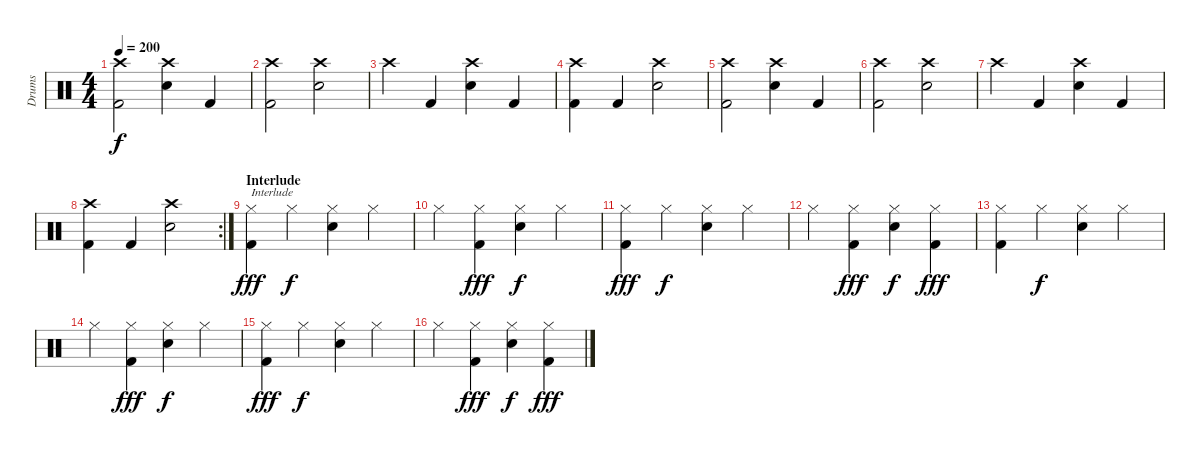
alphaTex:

\track ("Drums" "Drums") {instrument percussion}
\staff {score}
\articulation defaults
\ts (4 4)
\tempo 200
\clef neutral
\ks c
("Crash high (hit)" "Kick (hit) 2").2{dy f} ("Crash high (hit)" "Electric Snare (hit)").4 "Kick (hit) 2".4 |
("Crash high (hit)" "Kick (hit) 2").2 ("Crash high (hit)" "Electric Snare (hit)").2 |
"Crash high (hit)".4 "Kick (hit) 2".4 ("Crash high (hit)" "Electric Snare (hit)").4 "Kick (hit) 2".4 |
("Crash high (hit)" "Kick (hit) 2").4 "Kick (hit) 2".4 ("Crash high (hit)" "Electric Snare (hit)").2 |
("Crash high (hit)" "Kick (hit) 2").2 ("Crash high (hit)" "Electric Snare (hit)").4 "Kick (hit) 2".4 |
("Crash high (hit)" "Kick (hit) 2").2 ("Crash high (hit)" "Electric Snare (hit)").2 |
"Crash high (hit)".4 "Kick (hit) 2".4 ("Crash high (hit)" "Electric Snare (hit)").4 "Kick (hit) 2".4 |
\rc 2
("Crash high (hit)" "Kick (hit) 2").4 "Kick (hit) 2".4 ("Crash high (hit)" "Electric Snare (hit)").2 |
\section ("" "Interlude")
("Hi-Hat (closed)" "Kick (hit) 2").4{txt "Interlude" dy fff} "Hi-Hat (closed)".4{dy f} ("Hi-Hat (closed)" "Electric Snare (hit)").4 "Hi-Hat (closed)".4 |
"Hi-Hat (closed)".4 ("Hi-Hat (closed)" "Kick (hit) 2").4{dy fff} ("Hi-Hat (closed)" "Electric Snare (hit)").4{dy f} "Hi-Hat (closed)".4 |
("Hi-Hat (closed)" "Kick (hit) 2").4{dy fff} "Hi-Hat (closed)".4{dy f} ("Hi-Hat (closed)" "Electric Snare (hit)").4 "Hi-Hat (closed)".4 |
"Hi-Hat (closed)".4 ("Hi-Hat (closed)" "Kick (hit) 2").4{dy fff} ("Hi-Hat (closed)" "Electric Snare (hit)").4{dy f} ("Hi-Hat (closed)" "Kick (hit) 2").4{dy fff} |
("Hi-Hat (closed)" "Kick (hit) 2").4 "Hi-Hat (closed)".4{dy f} ("Hi-Hat (closed)" "Electric Snare (hit)").4 "Hi-Hat (closed)".4 |
"Hi-Hat (closed)".4 ("Hi-Hat (closed)" "Kick (hit) 2").4{dy fff} ("Hi-Hat (closed)" "Electric Snare (hit)").4{dy f} "Hi-Hat (closed)".4 |
("Hi-Hat (closed)" "Kick (hit) 2").4{dy fff} "Hi-Hat (closed)".4{dy f} ("Hi-Hat (closed)" "Electric Snare (hit)").4 "Hi-Hat (closed)".4 |
"Hi-Hat (closed)".4 ("Hi-Hat (closed)" "Kick (hit) 2").4{dy fff} ("Hi-Hat (closed)" "Electric Snare (hit)").4{dy f} ("Hi-Hat (closed)" "Kick (hit) 2").4{dy fff}
